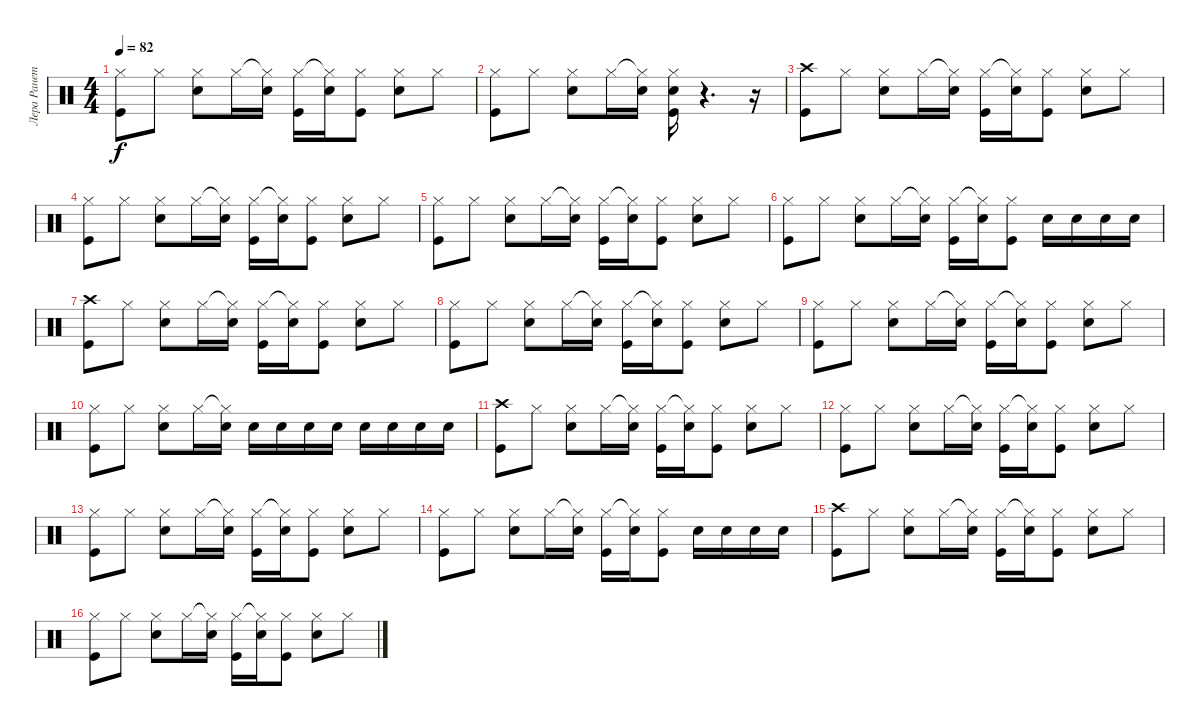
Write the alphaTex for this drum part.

\track ("Лера Ранетка" "Лера Ранет") {instrument percussion}
\staff {score}
\articulation defaults
\ts (4 4)
\tempo 82
\clef neutral
\ks c
("Hi-Hat (closed)" "Kick (hit)").8{dy f} "Hi-Hat (closed)".8 ("Hi-Hat (closed)" "Electric Snare (hit)").8 "Hi-Hat (closed)".16 ("Hi-Hat (closed)"{t} "Electric Snare (hit)").16 ("Hi-Hat (closed)" "Kick (hit)").16 ("Hi-Hat (closed)"{t} "Electric Snare (hit)").16 ("Hi-Hat (closed)" "Kick (hit)").8 ("Hi-Hat (closed)" "Electric Snare (hit)").8 "Hi-Hat (closed)".8 |
("Hi-Hat (closed)" "Kick (hit)").8 "Hi-Hat (closed)".8 ("Hi-Hat (closed)" "Electric Snare (hit)").8 "Hi-Hat (closed)".16 ("Hi-Hat (closed)"{t} "Electric Snare (hit)").16 ("Hi-Hat (closed)" "Electric Snare (hit)" "Kick (hit)").16 r.4{d} r.16 |
("Crash high (hit)" "Kick (hit)").8 "Hi-Hat (closed)".8 ("Hi-Hat (closed)" "Electric Snare (hit)").8 "Hi-Hat (closed)".16 ("Hi-Hat (closed)"{t} "Electric Snare (hit)").16 ("Hi-Hat (closed)" "Kick (hit)").16 ("Hi-Hat (closed)"{t} "Electric Snare (hit)").16 ("Hi-Hat (closed)" "Kick (hit)").8 ("Hi-Hat (closed)" "Electric Snare (hit)").8 "Hi-Hat (closed)".8 |
("Hi-Hat (closed)" "Kick (hit)").8 "Hi-Hat (closed)".8 ("Hi-Hat (closed)" "Electric Snare (hit)").8 "Hi-Hat (closed)".16 ("Hi-Hat (closed)"{t} "Electric Snare (hit)").16 ("Hi-Hat (closed)" "Kick (hit)").16 ("Hi-Hat (closed)"{t} "Electric Snare (hit)").16 ("Hi-Hat (closed)" "Kick (hit)").8 ("Hi-Hat (closed)" "Electric Snare (hit)").8 "Hi-Hat (closed)".8 |
("Hi-Hat (closed)" "Kick (hit)").8 "Hi-Hat (closed)".8 ("Hi-Hat (closed)" "Electric Snare (hit)").8 "Hi-Hat (closed)".16 ("Hi-Hat (closed)"{t} "Electric Snare (hit)").16 ("Hi-Hat (closed)" "Kick (hit)").16 ("Hi-Hat (closed)"{t} "Electric Snare (hit)").16 ("Hi-Hat (closed)" "Kick (hit)").8 ("Hi-Hat (closed)" "Electric Snare (hit)").8 "Hi-Hat (closed)".8 |
("Hi-Hat (closed)" "Kick (hit)").8 "Hi-Hat (closed)".8 ("Hi-Hat (closed)" "Electric Snare (hit)").8 "Hi-Hat (closed)".16 ("Hi-Hat (closed)"{t} "Electric Snare (hit)").16 ("Hi-Hat (closed)" "Kick (hit)").16 ("Hi-Hat (closed)"{t} "Electric Snare (hit)").16 ("Hi-Hat (closed)" "Kick (hit)").8 "Electric Snare (hit)".16 "Electric Snare (hit)".16 "Electric Snare (hit)".16 "Electric Snare (hit)".16 |
("Crash high (hit)" "Kick (hit)").8 "Hi-Hat (closed)".8 ("Hi-Hat (closed)" "Electric Snare (hit)").8 "Hi-Hat (closed)".16 ("Hi-Hat (closed)"{t} "Electric Snare (hit)").16 ("Hi-Hat (closed)" "Kick (hit)").16 ("Hi-Hat (closed)"{t} "Electric Snare (hit)").16 ("Hi-Hat (closed)" "Kick (hit)").8 ("Hi-Hat (closed)" "Electric Snare (hit)").8 "Hi-Hat (closed)".8 |
("Hi-Hat (closed)" "Kick (hit)").8 "Hi-Hat (closed)".8 ("Hi-Hat (closed)" "Electric Snare (hit)").8 "Hi-Hat (closed)".16 ("Hi-Hat (closed)"{t} "Electric Snare (hit)").16 ("Hi-Hat (closed)" "Kick (hit)").16 ("Hi-Hat (closed)"{t} "Electric Snare (hit)").16 ("Hi-Hat (closed)" "Kick (hit)").8 ("Hi-Hat (closed)" "Electric Snare (hit)").8 "Hi-Hat (closed)".8 |
("Hi-Hat (closed)" "Kick (hit)").8 "Hi-Hat (closed)".8 ("Hi-Hat (closed)" "Electric Snare (hit)").8 "Hi-Hat (closed)".16 ("Hi-Hat (closed)"{t} "Electric Snare (hit)").16 ("Hi-Hat (closed)" "Kick (hit)").16 ("Hi-Hat (closed)"{t} "Electric Snare (hit)").16 ("Hi-Hat (closed)" "Kick (hit)").8 ("Hi-Hat (closed)" "Electric Snare (hit)").8 "Hi-Hat (closed)".8 |
("Hi-Hat (closed)" "Kick (hit)").8 "Hi-Hat (closed)".8 ("Hi-Hat (closed)" "Electric Snare (hit)").8 "Hi-Hat (closed)".16 ("Hi-Hat (closed)"{t} "Electric Snare (hit)").16 "Electric Snare (hit)".16 "Electric Snare (hit)".16 "Electric Snare (hit)".16 "Electric Snare (hit)".16 "Electric Snare (hit)".16 "Electric Snare (hit)".16 "Electric Snare (hit)".16 "Electric Snare (hit)".16 |
("Crash high (hit)" "Kick (hit)").8 "Hi-Hat (closed)".8 ("Hi-Hat (closed)" "Electric Snare (hit)").8 "Hi-Hat (closed)".16 ("Hi-Hat (closed)"{t} "Electric Snare (hit)").16 ("Hi-Hat (closed)" "Kick (hit)").16 ("Hi-Hat (closed)"{t} "Electric Snare (hit)").16 ("Hi-Hat (closed)" "Kick (hit)").8 ("Hi-Hat (closed)" "Electric Snare (hit)").8 "Hi-Hat (closed)".8 |
("Hi-Hat (closed)" "Kick (hit)").8 "Hi-Hat (closed)".8 ("Hi-Hat (closed)" "Electric Snare (hit)").8 "Hi-Hat (closed)".16 ("Hi-Hat (closed)"{t} "Electric Snare (hit)").16 ("Hi-Hat (closed)" "Kick (hit)").16 ("Hi-Hat (closed)"{t} "Electric Snare (hit)").16 ("Hi-Hat (closed)" "Kick (hit)").8 ("Hi-Hat (closed)" "Electric Snare (hit)").8 "Hi-Hat (closed)".8 |
("Hi-Hat (closed)" "Kick (hit)").8 "Hi-Hat (closed)".8 ("Hi-Hat (closed)" "Electric Snare (hit)").8 "Hi-Hat (closed)".16 ("Hi-Hat (closed)"{t} "Electric Snare (hit)").16 ("Hi-Hat (closed)" "Kick (hit)").16 ("Hi-Hat (closed)"{t} "Electric Snare (hit)").16 ("Hi-Hat (closed)" "Kick (hit)").8 ("Hi-Hat (closed)" "Electric Snare (hit)").8 "Hi-Hat (closed)".8 |
("Hi-Hat (closed)" "Kick (hit)").8 "Hi-Hat (closed)".8 ("Hi-Hat (closed)" "Electric Snare (hit)").8 "Hi-Hat (closed)".16 ("Hi-Hat (closed)"{t} "Electric Snare (hit)").16 ("Hi-Hat (closed)" "Kick (hit)").16 ("Hi-Hat (closed)"{t} "Electric Snare (hit)").16 ("Hi-Hat (closed)" "Kick (hit)").8 "Electric Snare (hit)".16 "Electric Snare (hit)".16 "Electric Snare (hit)".16 "Electric Snare (hit)".16 |
("Crash high (hit)" "Kick (hit)").8 "Hi-Hat (closed)".8 ("Hi-Hat (closed)" "Electric Snare (hit)").8 "Hi-Hat (closed)".16 ("Hi-Hat (closed)"{t} "Electric Snare (hit)").16 ("Hi-Hat (closed)" "Kick (hit)").16 ("Hi-Hat (closed)"{t} "Electric Snare (hit)").16 ("Hi-Hat (closed)" "Kick (hit)").8 ("Hi-Hat (closed)" "Electric Snare (hit)").8 "Hi-Hat (closed)".8 |
("Hi-Hat (closed)" "Kick (hit)").8 "Hi-Hat (closed)".8 ("Hi-Hat (closed)" "Electric Snare (hit)").8 "Hi-Hat (closed)".16 ("Hi-Hat (closed)"{t} "Electric Snare (hit)").16 ("Hi-Hat (closed)" "Kick (hit)").16 ("Hi-Hat (closed)"{t} "Electric Snare (hit)").16 ("Hi-Hat (closed)" "Kick (hit)").8 ("Hi-Hat (closed)" "Electric Snare (hit)").8 "Hi-Hat (closed)".8
